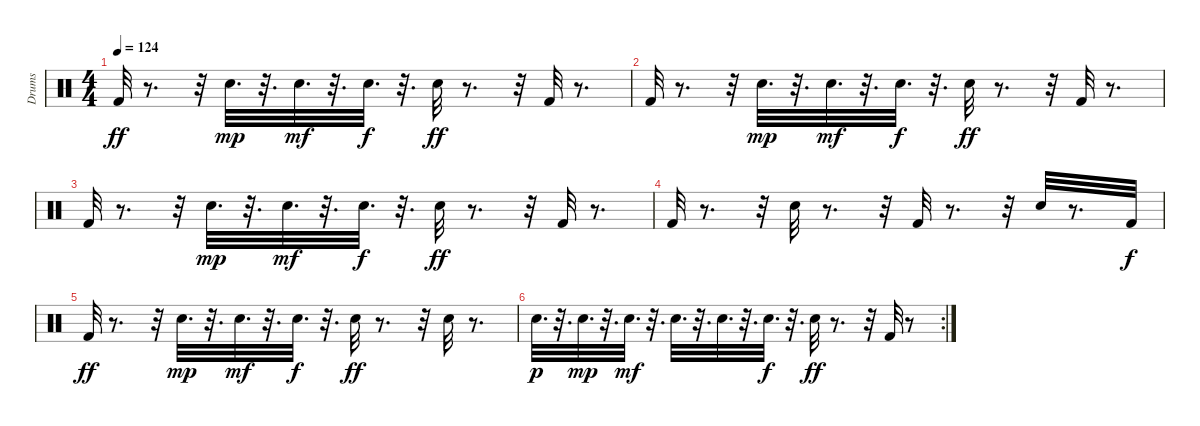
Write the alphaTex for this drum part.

\track ("Drums" "Drums") {instrument percussion}
\staff {score}
\articulation defaults
\ts (4 4)
\tempo 124
\clef neutral
\ks c "Kick (hit) 2".32{dy ff}
r.8{d} r.32 "Snare (hit) 2".32{d dy mp} r.32{d} "Snare (hit) 2".32{d dy mf} r.32{d} "Snare (hit) 2".32{d dy f} r.32{d} "Snare (hit) 2".32{dy ff} r.8{d} r.32 "Kick (hit) 2".32 r.8{d} |
"Kick (hit) 2".32 r.8{d} r.32 "Snare (hit) 2".32{d dy mp} r.32{d} "Snare (hit) 2".32{d dy mf} r.32{d} "Snare (hit) 2".32{d dy f} r.32{d} "Snare (hit) 2".32{dy ff} r.8{d} r.32 "Kick (hit) 2".32 r.8{d} |
"Kick (hit) 2".32 r.8{d} r.32 "Snare (hit) 2".32{d dy mp} r.32{d} "Snare (hit) 2".32{d dy mf} r.32{d} "Snare (hit) 2".32{d dy f} r.32{d} "Snare (hit) 2".32{dy ff} r.8{d} r.32 "Kick (hit) 2".32 r.8{d} |
"Kick (hit) 2".32 r.8{d} r.32 "Snare (hit) 2".32 r.8{d} r.32 "Kick (hit) 2".32 r.8{d} r.32 "Snare (hit) 2".32 r.8{d} "Kick (hit) 2".32{dy f} |
"Kick (hit) 2".32{dy ff} r.8{d} r.32 "Snare (hit) 2".32{d dy mp} r.32{d} "Snare (hit) 2".32{d dy mf} r.32{d} "Snare (hit) 2".32{d dy f} r.32{d} "Snare (hit) 2".32{dy ff} r.8{d} r.32 "Snare (hit) 2".32 r.8{d} |
\rc 2 "Snare (hit) 2".32{d dy p}
r.32{d} "Snare (hit) 2".32{d dy mp} r.32{d} "Snare (hit) 2".32{d dy mf} r.32{d} "Snare (hit) 2".32{d} r.32{d} "Snare (hit) 2".32{d} r.32{d} "Snare (hit) 2".32{d dy f} r.32{d} "Snare (hit) 2".32{dy ff} r.8{d} r.32 "Kick (hit) 2".32 r.8
